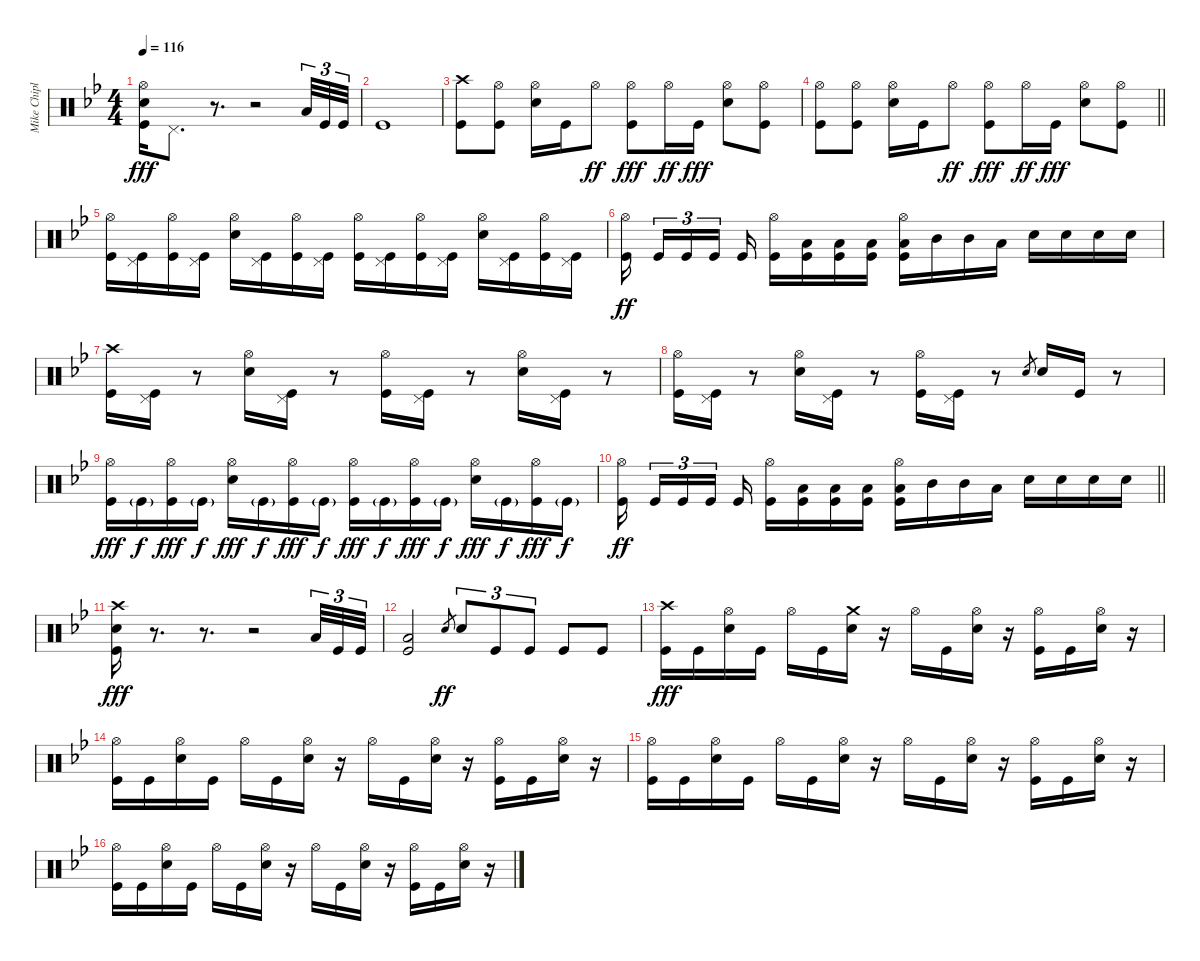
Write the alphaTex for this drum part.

\track ("Mike Chiplin" "Mike Chipl") {instrument percussion}
\staff {score}
\articulation defaults
\ts (4 4)
\tempo 116
\clef neutral
\ks bb
("Hi-Hat (open)" "Snare (hit) 2" "Kick (hit)").16{dy fff} "Pedal Hi-Hat (hit)".8{d} r.8{d} r.2 "Low Floor Tom (hit)".32{tu (3 2)} "Kick (hit)".32{tu (3 2)} "Kick (hit)".32{tu (3 2)} |
"Kick (hit)".1 |
("Crash high (hit)" "Kick (hit)").8 ("Hi-Hat (open)" "Kick (hit)").8 ("Hi-Hat (open)" "Snare (hit) 2").16 "Kick (hit)".16 "Hi-Hat (open)".8{dy ff} ("Hi-Hat (open)" "Kick (hit)").8{dy fff} "Hi-Hat (open)".16{dy ff} "Kick (hit)".16{dy fff} ("Hi-Hat (open)" "Snare (hit) 2").8 ("Hi-Hat (open)" "Kick (hit)").8 |
\barLineRight lightlight
("Hi-Hat (open)" "Kick (hit)").8 ("Hi-Hat (open)" "Kick (hit)").8 ("Hi-Hat (open)" "Snare (hit) 2").16 "Kick (hit)".16 "Hi-Hat (open)".8{dy ff} ("Hi-Hat (open)" "Kick (hit)").8{dy fff} "Hi-Hat (open)".16{dy ff} "Kick (hit)".16{dy fff} ("Hi-Hat (open)" "Snare (hit) 2").8 ("Hi-Hat (open)" "Kick (hit)").8 |
("Hi-Hat (open)" "Kick (hit)").16 ("Pedal Hi-Hat (hit)" "Kick (hit)").16 ("Hi-Hat (open)" "Kick (hit)").16 ("Pedal Hi-Hat (hit)" "Kick (hit)").16 ("Hi-Hat (open)" "Snare (hit) 2").16 ("Pedal Hi-Hat (hit)" "Kick (hit)").16 ("Hi-Hat (open)" "Kick (hit)").16 ("Pedal Hi-Hat (hit)" "Kick (hit)").16 ("Hi-Hat (open)" "Kick (hit)").16 ("Pedal Hi-Hat (hit)" "Kick (hit)").16 ("Hi-Hat (open)" "Kick (hit)").16 ("Pedal Hi-Hat (hit)" "Kick (hit)").16 ("Hi-Hat (open)" "Snare (hit) 2").16 ("Pedal Hi-Hat (hit)" "Kick (hit)").16 ("Hi-Hat (open)" "Kick (hit)").16 ("Pedal Hi-Hat (hit)" "Kick (hit)").16 |
("Hi-Hat (open)" "Kick (hit)").16{dy ff} "Kick (hit)".16{tu (3 2)} "Kick (hit)".16{tu (3 2)} "Kick (hit)".16{tu (3 2)} "Kick (hit)".16 ("Hi-Hat (open)" "Kick (hit)").16 ("Kick (hit)" "Low Tom (hit)").16 ("Kick (hit)" "Low Tom (hit)").16 ("Kick (hit)" "Low Tom (hit)").16 ("Hi-Hat (open)" "Kick (hit)" "Low Tom (hit)").16 "Mid Tom (hit)".16 "Mid Tom (hit)".16 "Low Tom (hit)".16 "Snare (hit) 2".16 "Snare (hit) 2".16 "Snare (hit) 2".16 "Snare (hit) 2".16 |
("Crash high (hit)" "Kick (hit)").16 ("Pedal Hi-Hat (hit)" "Kick (hit)").16 r.8 ("Hi-Hat (open)" "Snare (hit) 2").16 ("Pedal Hi-Hat (hit)" "Kick (hit)").16 r.8 ("Hi-Hat (open)" "Kick (hit)").16 ("Pedal Hi-Hat (hit)" "Kick (hit)").16 r.8 ("Hi-Hat (open)" "Snare (hit) 2").16 ("Pedal Hi-Hat (hit)" "Kick (hit)").16 r.8 |
("Hi-Hat (open)" "Kick (hit)").16 ("Pedal Hi-Hat (hit)" "Kick (hit)").16 r.8 ("Hi-Hat (open)" "Snare (hit) 2").16 ("Pedal Hi-Hat (hit)" "Kick (hit)").16 r.8 ("Hi-Hat (open)" "Kick (hit)").16 ("Pedal Hi-Hat (hit)" "Kick (hit)").16 r.8 "Snare (hit) 2".8{gr} "Snare (hit) 2".16 "Kick (hit)".16 r.8 |
("Hi-Hat (open)" "Kick (hit)").16{dy fff} "Kick (hit)"{g}.16{dy f} ("Hi-Hat (open)" "Kick (hit)").16{dy fff} "Kick (hit)"{g}.16{dy f} ("Hi-Hat (open)" "Snare (hit) 2").16{dy fff} "Kick (hit)"{g}.16{dy f} ("Hi-Hat (open)" "Kick (hit)").16{dy fff} "Kick (hit)"{g}.16{dy f} ("Hi-Hat (open)" "Kick (hit)").16{dy fff} "Kick (hit)"{g}.16{dy f} ("Hi-Hat (open)" "Kick (hit)").16{dy fff} "Kick (hit)"{g}.16{dy f} ("Hi-Hat (open)" "Snare (hit) 2").16{dy fff} "Kick (hit)"{g}.16{dy f} ("Hi-Hat (open)" "Kick (hit)").16{dy fff} "Kick (hit)"{g}.16{dy f} |
\barLineRight lightlight
("Hi-Hat (open)" "Kick (hit)").16{dy ff} "Kick (hit)".16{tu (3 2)} "Kick (hit)".16{tu (3 2)} "Kick (hit)".16{tu (3 2)} "Kick (hit)".16 ("Hi-Hat (open)" "Kick (hit)").16 ("Kick (hit)" "Low Tom (hit)").16 ("Kick (hit)" "Low Tom (hit)").16 ("Kick (hit)" "Low Tom (hit)").16 ("Hi-Hat (open)" "Kick (hit)" "Low Tom (hit)").16 "Mid Tom (hit)".16 "Mid Tom (hit)".16 "Low Tom (hit)".16 "Snare (hit) 2".16 "Snare (hit) 2".16 "Snare (hit) 2".16 "Snare (hit) 2".16 |
("Crash high (hit)" "Snare (hit) 2" "Kick (hit)").16{dy fff} r.8{d} r.8{d} r.2 "Low Floor Tom (hit)".32{tu (3 2)} "Kick (hit)".32{tu (3 2)} "Kick (hit)".32{tu (3 2)} |
("Low Tom (hit)" "Kick (hit)").2 "Snare (hit) 2".8{gr dy ff} "Snare (hit) 2".8{tu (3 2)} "Kick (hit)".8{tu (3 2)} "Kick (hit)".8{tu (3 2)} "Kick (hit)".8 "Kick (hit)".8 |
("Crash high (hit)" "Kick (hit)").16{dy fff} "Kick (hit)".16 ("Hi-Hat (open)" "Snare (hit) 2").16 "Kick (hit)".16 "Hi-Hat (open)".16 "Kick (hit)".16 ("Crash medium (hit)" "Snare (hit) 2").16 r.16 "Hi-Hat (open)".16 "Kick (hit)".16 ("Hi-Hat (open)" "Snare (hit) 2").16 r.16 ("Hi-Hat (open)" "Kick (hit)").16 "Kick (hit)".16 ("Hi-Hat (open)" "Snare (hit) 2").16 r.16 |
("Hi-Hat (open)" "Kick (hit)").16 "Kick (hit)".16 ("Hi-Hat (open)" "Snare (hit) 2").16 "Kick (hit)".16 "Hi-Hat (open)".16 "Kick (hit)".16 ("Hi-Hat (open)" "Snare (hit) 2").16 r.16 "Hi-Hat (open)".16 "Kick (hit)".16 ("Hi-Hat (open)" "Snare (hit) 2").16 r.16 ("Hi-Hat (open)" "Kick (hit)").16 "Kick (hit)".16 ("Hi-Hat (open)" "Snare (hit) 2").16 r.16 |
("Hi-Hat (open)" "Kick (hit)").16 "Kick (hit)".16 ("Hi-Hat (open)" "Snare (hit) 2").16 "Kick (hit)".16 "Hi-Hat (open)".16 "Kick (hit)".16 ("Hi-Hat (open)" "Snare (hit) 2").16 r.16 "Hi-Hat (open)".16 "Kick (hit)".16 ("Hi-Hat (open)" "Snare (hit) 2").16 r.16 ("Hi-Hat (open)" "Kick (hit)").16 "Kick (hit)".16 ("Hi-Hat (open)" "Snare (hit) 2").16 r.16 |
("Hi-Hat (open)" "Kick (hit)").16 "Kick (hit)".16 ("Hi-Hat (open)" "Snare (hit) 2").16 "Kick (hit)".16 "Hi-Hat (open)".16 "Kick (hit)".16 ("Hi-Hat (open)" "Snare (hit) 2").16 r.16 "Hi-Hat (open)".16 "Kick (hit)".16 ("Hi-Hat (open)" "Snare (hit) 2").16 r.16 ("Hi-Hat (open)" "Kick (hit)").16 "Kick (hit)".16 ("Hi-Hat (open)" "Snare (hit) 2").16 r.16
